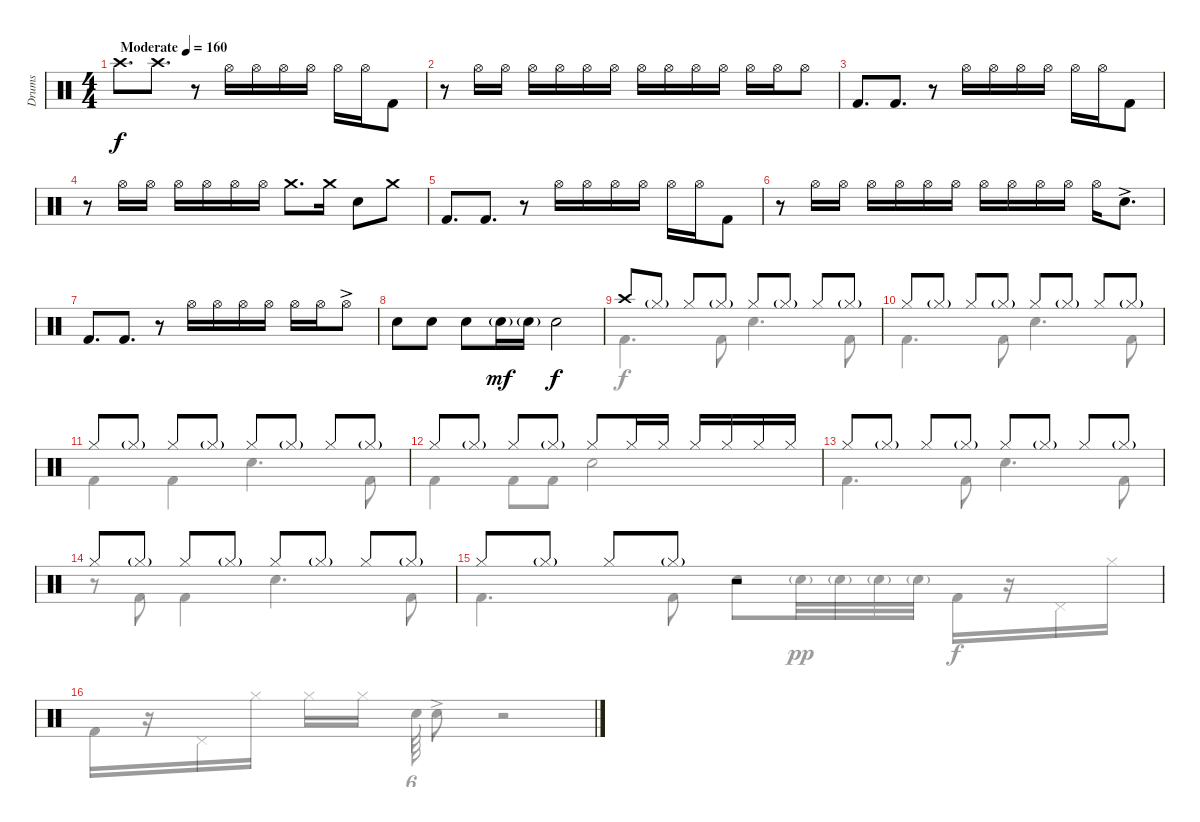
\track ("Drums" "Drums") {instrument percussion}
\staff {score}
\articulation defaults
\voice
\ts (4 4)
\tempo (160 "Moderate")
\clef neutral
\ks c "Crash high (hit)".8{d dy f} "Crash high (hit)".8{d}
r.8 "Hi-Hat (open)".16 "Hi-Hat (open)".16 "Hi-Hat (open)".16 "Hi-Hat (open)".16 "Hi-Hat (open)".16 "Hi-Hat (open)".16 "Kick (hit) 2".8 |
r.8 "Hi-Hat (open)".16 "Hi-Hat (open)".16 "Hi-Hat (open)".16 "Hi-Hat (open)".16 "Hi-Hat (open)".16 "Hi-Hat (open)".16 "Hi-Hat (open)".16 "Hi-Hat (open)".16 "Hi-Hat (open)".16 "Hi-Hat (open)".16 "Hi-Hat (open)".16 "Hi-Hat (open)".16 "Hi-Hat (open)".8 |
"Kick (hit) 2".8{d} "Kick (hit) 2".8{d} r.8 "Hi-Hat (open)".16 "Hi-Hat (open)".16 "Hi-Hat (open)".16 "Hi-Hat (open)".16 "Hi-Hat (open)".16 "Hi-Hat (open)".16 "Kick (hit) 2".8 |
r.8 "Hi-Hat (open)".16 "Hi-Hat (open)".16 "Hi-Hat (open)".16 "Hi-Hat (open)".16 "Hi-Hat (open)".16 "Hi-Hat (open)".16 "Crash medium (hit)".8{d} "Crash medium (hit)".16 "Snare (hit) 2".8 "Crash medium (hit)".8 |
"Kick (hit) 2".8{d} "Kick (hit) 2".8{d} r.8 "Hi-Hat (open)".16 "Hi-Hat (open)".16 "Hi-Hat (open)".16 "Hi-Hat (open)".16 "Hi-Hat (open)".16 "Hi-Hat (open)".16 "Kick (hit) 2".8 |
r.8 "Hi-Hat (open)".16 "Hi-Hat (open)".16 "Hi-Hat (open)".16 "Hi-Hat (open)".16 "Hi-Hat (open)".16 "Hi-Hat (open)".16 "Hi-Hat (open)".16 "Hi-Hat (open)".16 "Hi-Hat (open)".16 "Hi-Hat (open)".16 "Hi-Hat (open)".16 "Snare (hit) 2"{ac}.8{d} |
"Kick (hit) 2".8{d} "Kick (hit) 2".8{d} r.8 "Hi-Hat (open)".16 "Hi-Hat (open)".16 "Hi-Hat (open)".16 "Hi-Hat (open)".16 "Hi-Hat (open)".16 "Hi-Hat (open)".16 "Hi-Hat (open)"{ac}.8 |
"Snare (hit) 2".8 "Snare (hit) 2".8 "Snare (hit) 2".8 "Snare (hit) 2"{g}.16{dy mf} "Snare (hit) 2"{g}.16 "Snare (hit) 2".2{dy f} |
"Crash high (hit)".8 "Hi-Hat (closed)"{g}.8 "Hi-Hat (closed)".8 "Hi-Hat (closed)"{g}.8 "Hi-Hat (closed)".8 "Hi-Hat (closed)"{g}.8 "Hi-Hat (closed)".8 "Hi-Hat (closed)"{g}.8 |
"Hi-Hat (closed)".8 "Hi-Hat (closed)"{g}.8 "Hi-Hat (closed)".8 "Hi-Hat (closed)"{g}.8 "Hi-Hat (closed)".8 "Hi-Hat (closed)"{g}.8 "Hi-Hat (closed)".8 "Hi-Hat (closed)"{g}.8 |
"Hi-Hat (closed)".8 "Hi-Hat (closed)"{g}.8 "Hi-Hat (closed)".8 "Hi-Hat (closed)"{g}.8 "Hi-Hat (closed)".8 "Hi-Hat (closed)"{g}.8 "Hi-Hat (closed)".8 "Hi-Hat (closed)"{g}.8 |
"Hi-Hat (closed)".8 "Hi-Hat (closed)"{g}.8 "Hi-Hat (closed)".8 "Hi-Hat (closed)"{g}.8 "Hi-Hat (closed)".8 "Hi-Hat (closed)".16 "Hi-Hat (closed)".16 "Hi-Hat (closed)".16 "Hi-Hat (closed)".16 "Hi-Hat (closed)".16 "Hi-Hat (closed)".16 |
"Hi-Hat (closed)".8 "Hi-Hat (closed)"{g}.8 "Hi-Hat (closed)".8 "Hi-Hat (closed)"{g}.8 "Hi-Hat (closed)".8 "Hi-Hat (closed)"{g}.8 "Hi-Hat (closed)".8 "Hi-Hat (closed)"{g}.8 |
"Hi-Hat (closed)".8 "Hi-Hat (closed)"{g}.8 "Hi-Hat (closed)".8 "Hi-Hat (closed)"{g}.8 "Hi-Hat (closed)".8 "Hi-Hat (closed)"{g}.8 "Hi-Hat (closed)".8 "Hi-Hat (closed)"{g}.8 |
"Hi-Hat (closed)".8 "Hi-Hat (closed)"{g}.8 "Hi-Hat (closed)".8 "Hi-Hat (closed)"{g}.8 r.2 |
\voice
\clef neutral
\ottava regular
\simile none
\ks c
|
|
|
|
|
|
|
|
"Kick (hit) 2".4{d} "Kick (hit) 2".8 "Snare (hit) 2".4{d} "Kick (hit) 2".8 |
"Kick (hit) 2".4{d} "Kick (hit) 2".8 "Snare (hit) 2".4{d} "Kick (hit) 2".8 |
"Kick (hit) 2".4 "Kick (hit) 2".4 "Snare (hit) 2".4{d} "Kick (hit) 2".8 |
"Kick (hit) 2".4 "Kick (hit) 2".8 "Kick (hit) 2".8 "Snare (hit) 2".2 |
"Kick (hit) 2".4{d} "Kick (hit) 2".8 "Snare (hit) 2".4{d} "Kick (hit) 2".8 |
r.8 "Kick (hit) 2".8 "Kick (hit) 2".4 "Snare (hit) 2".4{d} "Kick (hit) 2".8 |
"Kick (hit) 2".4{d} "Kick (hit) 2".8 "Snare (hit) 2".8 "Snare (hit) 2"{g}.32{dy pp} "Snare (hit) 2"{g}.32 "Snare (hit) 2"{g}.32 "Snare (hit) 2"{g}.32 "Kick (hit) 2".16{dy f} r.16 "Pedal Hi-Hat (hit)".16 "Hi-Hat (closed)".16 |
"Kick (hit) 2".16 r.16 "Pedal Hi-Hat (hit)".16 "Hi-Hat (closed)".16 "Hi-Hat (closed)".16 "Hi-Hat (closed)".16{beam splitsecondary} "Snare (hit) 2".64{tu (6 4)} "Snare (hit) 2"{ac}.8 r.2
